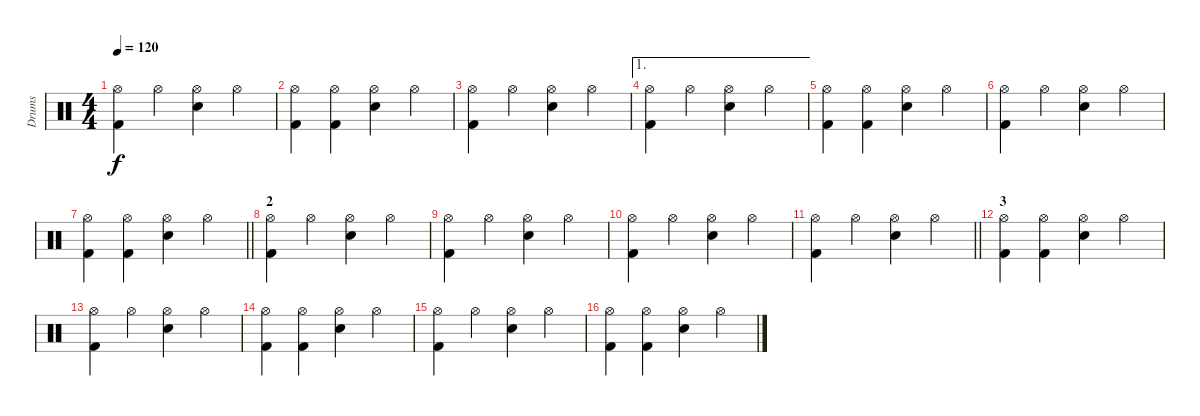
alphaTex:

\track ("Drums" "Drums") {instrument percussion}
\staff {score}
\articulation defaults
\ts (4 4)
\tempo 120
\clef neutral
\ks c
("Hi-Hat (open)" "Kick (hit) 2").4{dy f} "Hi-Hat (open)".4 ("Hi-Hat (open)" "Snare (hit) 2").4 "Hi-Hat (open)".4 |
("Hi-Hat (open)" "Kick (hit) 2").4 ("Hi-Hat (open)" "Kick (hit) 2").4 ("Hi-Hat (open)" "Snare (hit) 2").4 "Hi-Hat (open)".4 |
("Hi-Hat (open)" "Kick (hit) 2").4 "Hi-Hat (open)".4 ("Hi-Hat (open)" "Snare (hit) 2").4 "Hi-Hat (open)".4 |
\ae 1
("Hi-Hat (open)" "Kick (hit) 2").4 "Hi-Hat (open)".4 ("Hi-Hat (open)" "Snare (hit) 2").4 "Hi-Hat (open)".4 |
("Hi-Hat (open)" "Kick (hit) 2").4 ("Hi-Hat (open)" "Kick (hit) 2").4 ("Hi-Hat (open)" "Snare (hit) 2").4 "Hi-Hat (open)".4 |
("Hi-Hat (open)" "Kick (hit) 2").4 "Hi-Hat (open)".4 ("Hi-Hat (open)" "Snare (hit) 2").4 "Hi-Hat (open)".4 |
\barLineRight lightlight
("Hi-Hat (open)" "Kick (hit) 2").4 ("Hi-Hat (open)" "Kick (hit) 2").4 ("Hi-Hat (open)" "Snare (hit) 2").4 "Hi-Hat (open)".4 |
\section ("" "2")
("Hi-Hat (open)" "Kick (hit) 2").4 "Hi-Hat (open)".4 ("Hi-Hat (open)" "Snare (hit) 2").4 "Hi-Hat (open)".4 |
("Hi-Hat (open)" "Kick (hit) 2").4 "Hi-Hat (open)".4 ("Hi-Hat (open)" "Snare (hit) 2").4 "Hi-Hat (open)".4 |
("Hi-Hat (open)" "Kick (hit) 2").4 "Hi-Hat (open)".4 ("Hi-Hat (open)" "Snare (hit) 2").4 "Hi-Hat (open)".4 |
\barLineRight lightlight
("Hi-Hat (open)" "Kick (hit) 2").4 "Hi-Hat (open)".4 ("Hi-Hat (open)" "Snare (hit) 2").4 "Hi-Hat (open)".4 |
\section ("" "3")
("Hi-Hat (open)" "Kick (hit) 2").4 ("Hi-Hat (open)" "Kick (hit) 2").4 ("Hi-Hat (open)" "Snare (hit) 2").4 "Hi-Hat (open)".4 |
("Hi-Hat (open)" "Kick (hit) 2").4 "Hi-Hat (open)".4 ("Hi-Hat (open)" "Snare (hit) 2").4 "Hi-Hat (open)".4 |
("Hi-Hat (open)" "Kick (hit) 2").4 ("Hi-Hat (open)" "Kick (hit) 2").4 ("Hi-Hat (open)" "Snare (hit) 2").4 "Hi-Hat (open)".4 |
("Hi-Hat (open)" "Kick (hit) 2").4 "Hi-Hat (open)".4 ("Hi-Hat (open)" "Snare (hit) 2").4 "Hi-Hat (open)".4 |
("Hi-Hat (open)" "Kick (hit) 2").4 ("Hi-Hat (open)" "Kick (hit) 2").4 ("Hi-Hat (open)" "Snare (hit) 2").4 "Hi-Hat (open)".4
